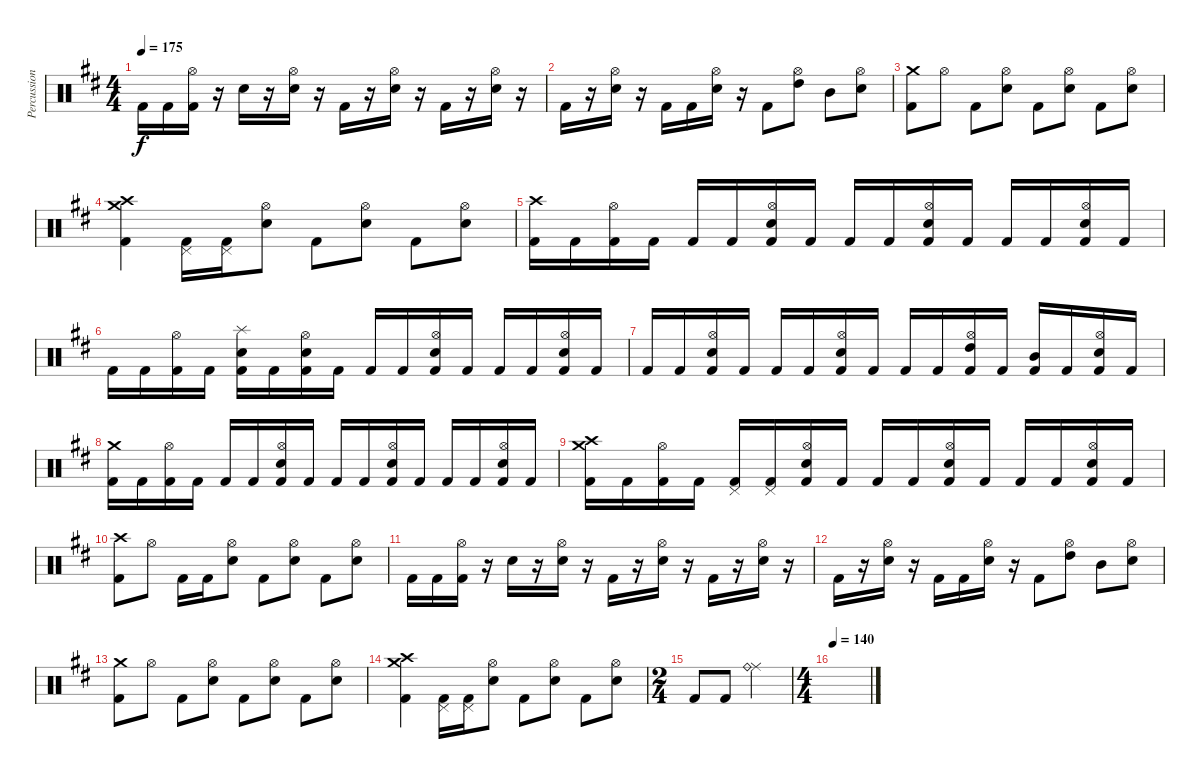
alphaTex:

\track ("Percussion" "Percussion") {instrument percussion}
\staff {score}
\articulation defaults
\ts (4 4)
\tempo 175
\clef neutral
\ks bminor "Kick (hit) 2".16{dy f} "Kick (hit) 2".16
("Hi-Hat (open)" "Kick (hit) 2").16 r.16 "Electric Snare (hit)".16 r.16 ("Hi-Hat (open)" "Electric Snare (hit)").16 r.16 "Kick (hit) 2".16 r.16 ("Hi-Hat (open)" "Electric Snare (hit)").16 r.16 "Kick (hit) 2".16 r.16 ("Hi-Hat (open)" "Electric Snare (hit)").16 r.16 |
"Kick (hit) 2".16 r.16 ("Hi-Hat (open)" "Electric Snare (hit)").16 r.16 "Kick (hit) 2".16 "Kick (hit) 2".16 ("Hi-Hat (open)" "Electric Snare (hit)").16 r.16 "Kick (hit) 2".8 ("Hi-Hat (open)" "High Tom (hit)").8 "Mid Tom (hit)".8 ("Hi-Hat (open)" "Electric Snare (hit)").8 |
("Crash medium (hit)" "Kick (hit) 2").8 "Hi-Hat (open)".8 "Kick (hit) 2".8 ("Hi-Hat (open)" "Electric Snare (hit)").8 "Kick (hit) 2".8 ("Hi-Hat (open)" "Electric Snare (hit)").8 "Kick (hit) 2".8 ("Hi-Hat (open)" "Electric Snare (hit)").8 |
("Crash high (hit)" "Crash medium (hit)" "Kick (hit) 2").4 ("Pedal Hi-Hat (hit)" "Kick (hit) 2").16 ("Pedal Hi-Hat (hit)" "Kick (hit) 2").16 ("Hi-Hat (open)" "Electric Snare (hit)").8 "Kick (hit) 2".8 ("Hi-Hat (open)" "Electric Snare (hit)").8 "Kick (hit) 2".8 ("Hi-Hat (open)" "Electric Snare (hit)").8 |
("Crash high (hit)" "Kick (hit) 2").16 "Kick (hit) 2".16 ("Hi-Hat (open)" "Kick (hit) 2").16 "Kick (hit) 2".16 "Kick (hit) 2".16 "Kick (hit) 2".16 ("Hi-Hat (open)" "Electric Snare (hit)" "Kick (hit) 2").16 "Kick (hit) 2".16 "Kick (hit) 2".16 "Kick (hit) 2".16 ("Hi-Hat (open)" "Electric Snare (hit)" "Kick (hit) 2").16 "Kick (hit) 2".16 "Kick (hit) 2".16 "Kick (hit) 2".16 ("Hi-Hat (open)" "Electric Snare (hit)" "Kick (hit) 2").16 "Kick (hit) 2".16 |
"Kick (hit) 2".16 "Kick (hit) 2".16 ("Hi-Hat (open)" "Kick (hit) 2").16 "Kick (hit) 2".16 ("Splash (hit)" "Electric Snare (hit)" "Kick (hit) 2").16 "Kick (hit) 2".16 ("Hi-Hat (open)" "Electric Snare (hit)" "Kick (hit) 2").16 "Kick (hit) 2".16 "Kick (hit) 2".16 "Kick (hit) 2".16 ("Hi-Hat (open)" "Electric Snare (hit)" "Kick (hit) 2").16 "Kick (hit) 2".16 "Kick (hit) 2".16 "Kick (hit) 2".16 ("Hi-Hat (open)" "Electric Snare (hit)" "Kick (hit) 2").16 "Kick (hit) 2".16 |
"Kick (hit) 2".16 "Kick (hit) 2".16 ("Hi-Hat (open)" "Electric Snare (hit)" "Kick (hit) 2").16 "Kick (hit) 2".16 "Kick (hit) 2".16 "Kick (hit) 2".16 ("Hi-Hat (open)" "Electric Snare (hit)" "Kick (hit) 2").16 "Kick (hit) 2".16 "Kick (hit) 2".16 "Kick (hit) 2".16 ("Hi-Hat (open)" "High Tom (hit)" "Kick (hit) 2").16 "Kick (hit) 2".16 ("Mid Tom (hit)" "Kick (hit) 2").16 "Kick (hit) 2".16 ("Hi-Hat (open)" "Electric Snare (hit)" "Kick (hit) 2").16 "Kick (hit) 2".16 |
("Crash medium (hit)" "Kick (hit) 2").16 "Kick (hit) 2".16 ("Hi-Hat (open)" "Kick (hit) 2").16 "Kick (hit) 2".16 "Kick (hit) 2".16 "Kick (hit) 2".16 ("Hi-Hat (open)" "Electric Snare (hit)" "Kick (hit) 2").16 "Kick (hit) 2".16 "Kick (hit) 2".16 "Kick (hit) 2".16 ("Hi-Hat (open)" "Electric Snare (hit)" "Kick (hit) 2").16 "Kick (hit) 2".16 "Kick (hit) 2".16 "Kick (hit) 2".16 ("Hi-Hat (open)" "Electric Snare (hit)" "Kick (hit) 2").16 "Kick (hit) 2".16 |
("Crash high (hit)" "Crash medium (hit)" "Kick (hit) 2").16 "Kick (hit) 2".16 ("Hi-Hat (open)" "Kick (hit) 2").16 "Kick (hit) 2".16 ("Pedal Hi-Hat (hit)" "Kick (hit) 2").16 ("Pedal Hi-Hat (hit)" "Kick (hit) 2").16 ("Hi-Hat (open)" "Electric Snare (hit)" "Kick (hit) 2").16 "Kick (hit) 2".16 "Kick (hit) 2".16 "Kick (hit) 2".16 ("Hi-Hat (open)" "Electric Snare (hit)" "Kick (hit) 2").16 "Kick (hit) 2".16 "Kick (hit) 2".16 "Kick (hit) 2".16 ("Hi-Hat (open)" "Electric Snare (hit)" "Kick (hit) 2").16 "Kick (hit) 2".16 |
("Crash high (hit)" "Kick (hit) 2").8 "Hi-Hat (open)".8 "Kick (hit) 2".16 "Kick (hit) 2".16 ("Hi-Hat (open)" "Electric Snare (hit)").8 "Kick (hit) 2".8 ("Hi-Hat (open)" "Electric Snare (hit)").8 "Kick (hit) 2".8 ("Hi-Hat (open)" "Electric Snare (hit)").8 |
"Kick (hit) 2".16 "Kick (hit) 2".16 ("Hi-Hat (open)" "Kick (hit) 2").16 r.16 "Electric Snare (hit)".16 r.16 ("Hi-Hat (open)" "Electric Snare (hit)").16 r.16 "Kick (hit) 2".16 r.16 ("Hi-Hat (open)" "Electric Snare (hit)").16 r.16 "Kick (hit) 2".16 r.16 ("Hi-Hat (open)" "Electric Snare (hit)").16 r.16 |
"Kick (hit) 2".16 r.16 ("Hi-Hat (open)" "Electric Snare (hit)").16 r.16 "Kick (hit) 2".16 "Kick (hit) 2".16 ("Hi-Hat (open)" "Electric Snare (hit)").16 r.16 "Kick (hit) 2".8 ("Hi-Hat (open)" "High Tom (hit)").8 "Mid Tom (hit)".8 ("Hi-Hat (open)" "Electric Snare (hit)").8 |
("Crash medium (hit)" "Kick (hit) 2").8 "Hi-Hat (open)".8 "Kick (hit) 2".8 ("Hi-Hat (open)" "Electric Snare (hit)").8 "Kick (hit) 2".8 ("Hi-Hat (open)" "Electric Snare (hit)").8 "Kick (hit) 2".8 ("Hi-Hat (open)" "Electric Snare (hit)").8 |
("Crash high (hit)" "Crash medium (hit)" "Kick (hit) 2").4 ("Pedal Hi-Hat (hit)" "Kick (hit) 2").16 ("Pedal Hi-Hat (hit)" "Kick (hit) 2").16 ("Hi-Hat (open)" "Electric Snare (hit)").8 "Kick (hit) 2".8 ("Hi-Hat (open)" "Electric Snare (hit)").8 "Kick (hit) 2".8 ("Hi-Hat (open)" "Electric Snare (hit)").8 |
\ts (2 4)
"Kick (hit) 2".8 "Kick (hit) 2".8 ("Ride (middle)" "Ride (bell)").4 |
\ts (4 4)
\tempo 140
